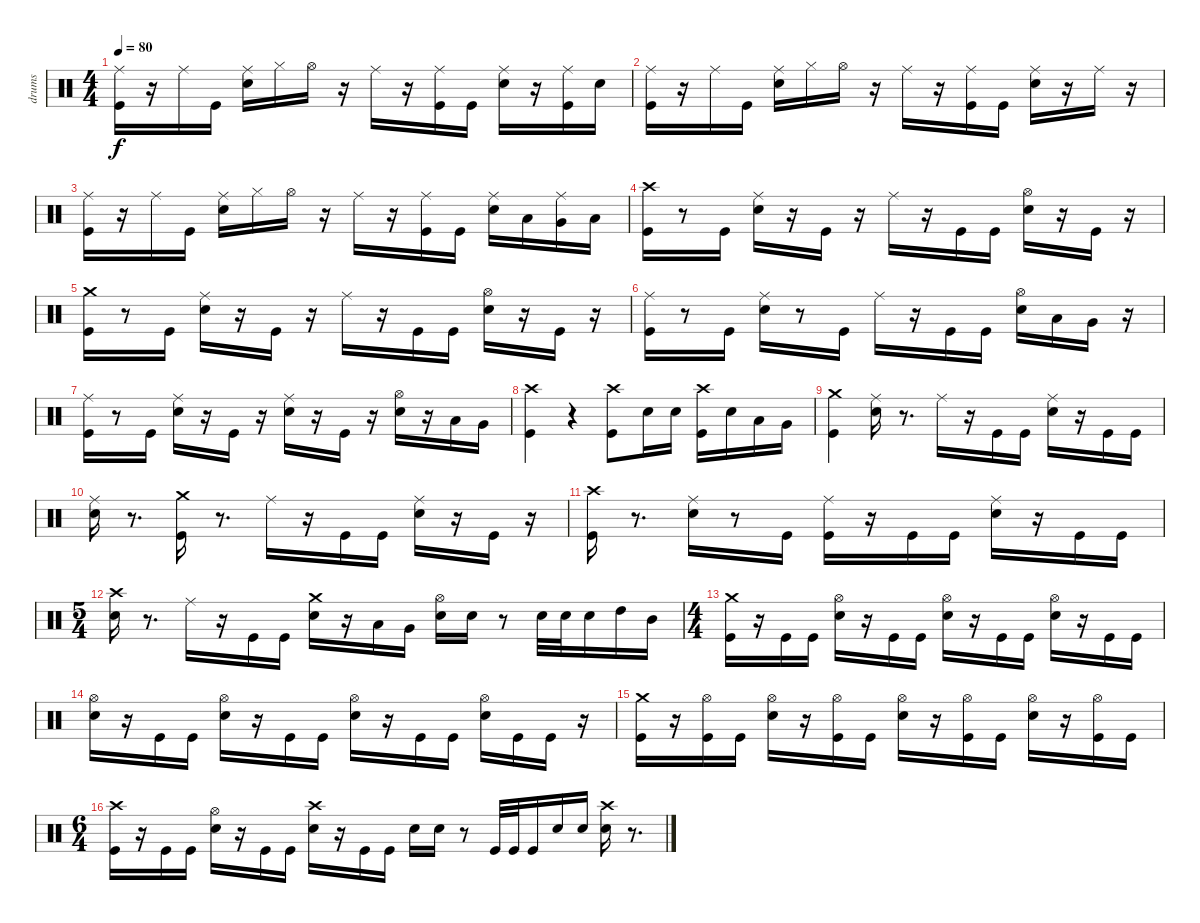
\track ("drums" "drums") {instrument percussion}
\staff {score}
\articulation defaults
\ts (4 4)
\tempo 80
\clef neutral
\ks c
("Ride (middle)" "Kick (hit)").16{dy f} r.16 "Ride (middle)".16 "Kick (hit)".16 ("Ride (middle)" "Electric Snare (hit)").16 "Hi-Hat (closed)".16 "Hi-Hat (open)".16 r.16 "Ride (middle)".16 r.16 ("Ride (middle)" "Kick (hit)").16 "Kick (hit)".16 ("Ride (middle)" "Electric Snare (hit)").16 r.16 ("Kick (hit)" "Ride (middle)").16 "Electric Snare (hit)".16 |
("Ride (middle)" "Kick (hit)").16 r.16 "Ride (middle)".16 "Kick (hit)".16 ("Ride (middle)" "Electric Snare (hit)").16 "Hi-Hat (closed)".16 "Hi-Hat (open)".16 r.16 "Ride (middle)".16 r.16 ("Ride (middle)" "Kick (hit)").16 "Kick (hit)".16 ("Ride (middle)" "Electric Snare (hit)").16 r.16 "Ride (middle)".16 r.16 |
("Ride (middle)" "Kick (hit)").16 r.16 "Ride (middle)".16 "Kick (hit)".16 ("Ride (middle)" "Electric Snare (hit)").16 "Hi-Hat (closed)".16 "Hi-Hat (open)".16 r.16 "Ride (middle)".16 r.16 ("Ride (middle)" "Kick (hit)").16 "Kick (hit)".16 ("Ride (middle)" "Electric Snare (hit)").16 "Low Tom (hit)".16 ("Very Low Tom (hit)" "Ride (middle)").16 "Low Floor Tom (hit)".16 |
("Crash high (hit)" "Kick (hit)").16 r.8 "Kick (hit)".16 ("Ride (middle)" "Electric Snare (hit)").16 r.16 "Kick (hit)".16 r.16 "Ride (middle)".16 r.16 "Kick (hit)".16 "Kick (hit)".16 ("Electric Snare (hit)" "Hi-Hat (open)").16 r.16 "Kick (hit)".16 r.16 |
("Crash medium (hit)" "Kick (hit)").16 r.8 "Kick (hit)".16 ("Ride (middle)" "Electric Snare (hit)").16 r.16 "Kick (hit)".16 r.16 "Ride (middle)".16 r.16 "Kick (hit)".16 "Kick (hit)".16 ("Hi-Hat (open)" "Electric Snare (hit)").16 r.16 "Kick (hit)".16 r.16 |
("Ride (middle)" "Kick (hit)").16 r.8 "Kick (hit)".16 ("Electric Snare (hit)" "Ride (middle)").16 r.8 "Kick (hit)".16 "Ride (middle)".16 r.16 "Kick (hit)".16 "Kick (hit)".16 ("Hi-Hat (open)" "Electric Snare (hit)").16 "Low Tom (hit)".16 "Very Low Tom (hit)".16 r.16 |
("Ride (middle)" "Kick (hit)").16 r.8 "Kick (hit)".16 ("Ride (middle)" "Snare (hit) 2").16 r.16 "Kick (hit)".16 r.16 ("Ride (middle)" "Electric Snare (hit)").16 r.16 "Kick (hit)".16 r.16 ("Hi-Hat (open)" "Electric Snare (hit)").16 r.16 "Low Tom (hit)".16 "Very Low Tom (hit)".16 |
("Crash high (hit)" "Kick (hit)").4 r.4 ("Crash high (hit)" "Kick (hit)").8 "Electric Snare (hit)".16 "Electric Snare (hit)".16 ("Crash high (hit)" "Kick (hit)").16 "Electric Snare (hit)".16 "Low Tom (hit)".16 "Very Low Tom (hit)".16 |
("Kick (hit)" "Crash medium (hit)").4 ("Ride (middle)" "Electric Snare (hit)").16 r.8{d} "Ride (middle)".16 r.16 "Kick (hit)".16 "Kick (hit)".16 ("Ride (middle)" "Electric Snare (hit)").16 r.16 "Kick (hit)".16 "Kick (hit)".16 |
("Ride (middle)" "Electric Snare (hit)").16 r.8{d} ("Crash medium (hit)" "Kick (hit)").16 r.8{d} "Ride (middle)".16 r.16 "Kick (hit)".16 "Kick (hit)".16 ("Electric Snare (hit)" "Ride (middle)").16 r.16 "Kick (hit)".16 r.16 |
("Crash high (hit)" "Kick (hit)").16 r.8{d} ("Electric Snare (hit)" "Ride (middle)").16 r.8 "Kick (hit)".16 ("Kick (hit)" "Ride (middle)").16 r.16 "Kick (hit)".16 "Kick (hit)".16 ("Electric Snare (hit)" "Ride (middle)").16 r.16 "Kick (hit)".16 "Kick (hit)".16 |
\ts (5 4)
("Electric Snare (hit)" "Crash high (hit)").16 r.8{d} "Ride (middle)".16 r.16 "Kick (hit)".16 "Kick (hit)".16 ("Crash medium (hit)" "Electric Snare (hit)").16 r.16 "Low Tom (hit)".16 "Very Low Tom (hit)".16 ("Hi-Hat (open)" "Electric Snare (hit)").16 "Electric Snare (hit)".16 r.8 "Electric Snare (hit)".32 "Electric Snare (hit)".32 "Electric Snare (hit)".16 "High Tom (hit)".16 "Mid Tom (hit)".16 |
\ts (4 4)
("Crash medium (hit)" "Kick (hit)").16 r.16 "Kick (hit)".16 "Kick (hit)".16 ("Hi-Hat (open)" "Electric Snare (hit)").16 r.16 "Kick (hit)".16 "Kick (hit)".16 ("Hi-Hat (open)" "Snare (hit) 2").16 r.16 "Kick (hit)".16 "Kick (hit)".16 ("Hi-Hat (open)" "Snare (hit) 2").16 r.16 "Kick (hit)".16 "Kick (hit)".16 |
("Electric Snare (hit)" "Hi-Hat (open)").16 r.16 "Kick (hit)".16 "Kick (hit)".16 ("Hi-Hat (open)" "Electric Snare (hit)").16 r.16 "Kick (hit)".16 "Kick (hit)".16 ("Hi-Hat (open)" "Electric Snare (hit)").16 r.16 "Kick (hit)".16 "Kick (hit)".16 ("Hi-Hat (open)" "Electric Snare (hit)").16 "Kick (hit)".16 "Kick (hit)".16 r.16 |
("Kick (hit)" "Crash medium (hit)").16 r.16 ("Hi-Hat (open)" "Kick (hit)").16 "Kick (hit)".16 ("Electric Snare (hit)" "Hi-Hat (open)").16 r.16 ("Hi-Hat (open)" "Kick (hit)").16 "Kick (hit)".16 ("Hi-Hat (open)" "Electric Snare (hit)").16 r.16 ("Hi-Hat (open)" "Kick (hit)").16 "Kick (hit)".16 ("Hi-Hat (open)" "Electric Snare (hit)").16 r.16 ("Hi-Hat (open)" "Kick (hit)").16 "Kick (hit)".16 |
\ts (6 4)
("Crash high (hit)" "Kick (hit)").16 r.16 "Kick (hit)".16 "Kick (hit)".16 ("Snare (hit) 2" "Hi-Hat (open)").16 r.16 "Kick (hit)".16 "Kick (hit)".16 ("Snare (hit) 2" "Crash high (hit)").16 r.16 "Kick (hit)".16 "Kick (hit)".16 "Electric Snare (hit)".16 "Electric Snare (hit)".16 r.8 "Kick (hit)".32 "Kick (hit)".32 "Kick (hit)".16 "Electric Snare (hit)".16 "Electric Snare (hit)".16 ("Crash high (hit)" "Electric Snare (hit)").16 r.8{d}
